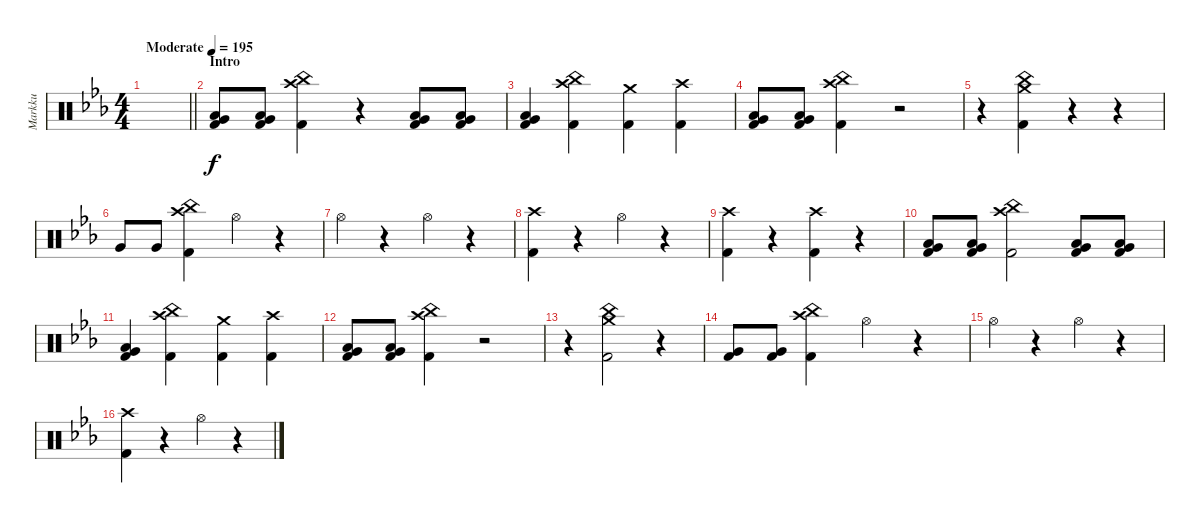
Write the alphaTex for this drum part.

\track ("Markku" "Markku") {instrument percussion}
\staff {score}
\articulation defaults
\ts (4 4)
\tempo (195 "Moderate")
\clef neutral
\barLineRight lightlight
\ks cminor
|
\section ("" "Intro")
("Very Low Tom (hit)" "Kick (hit) 2" "Low Tom (hit)").8 ("Very Low Tom (hit)" "Kick (hit) 2" "Low Tom (hit)").8 ("Crash high (hit)" "China (hit)" "Kick (hit) 2").4 r.4 ("Kick (hit) 2" "Low Tom (hit)" "Very Low Tom (hit)").8 ("Kick (hit) 2" "Low Tom (hit)" "Very Low Tom (hit)").8 |
("Kick (hit) 2" "Low Tom (hit)" "Very Low Tom (hit)").4 ("Kick (hit) 2" "Crash high (hit)" "China (hit)").4 ("Kick (hit) 2" "Crash medium (hit)").4 ("Kick (hit) 2" "Crash high (hit)").4 |
("Kick (hit) 2" "Low Tom (hit)" "Very Low Tom (hit)").8 ("Kick (hit) 2" "Low Tom (hit)" "Very Low Tom (hit)").8 ("Crash high (hit)" "China (hit)" "Kick (hit) 2").4 r.2 |
r.4 ("Kick (hit) 2" "China (hit)" "Crash medium (hit)").4 r.4 r.4 |
"Very Low Tom (hit)".8 "Very Low Tom (hit)".8 ("China (hit)" "Crash high (hit)" "Kick (hit) 2").4 "Hi-Hat (open)".4 r.4 |
"Hi-Hat (open)".4 r.4 "Hi-Hat (open)".4 r.4 |
("Crash high (hit)" "Kick (hit) 2").4 r.4 "Hi-Hat (open)".4 r.4 |
("Crash high (hit)" "Kick (hit) 2").4 r.4 ("Kick (hit) 2" "Crash high (hit)").4 r.4 |
("Very Low Tom (hit)" "Kick (hit) 2" "Low Tom (hit)").8 ("Very Low Tom (hit)" "Kick (hit) 2" "Low Tom (hit)").8 ("Crash high (hit)" "China (hit)" "Kick (hit) 2").2 ("Kick (hit) 2" "Low Tom (hit)" "Very Low Tom (hit)").8 ("Kick (hit) 2" "Low Tom (hit)" "Very Low Tom (hit)").8 |
("Kick (hit) 2" "Low Tom (hit)" "Very Low Tom (hit)").4 ("Kick (hit) 2" "Crash high (hit)" "China (hit)").4 ("Kick (hit) 2" "Crash medium (hit)").4 ("Kick (hit) 2" "Crash high (hit)").4 |
("Kick (hit) 2" "Low Tom (hit)" "Very Low Tom (hit)").8 ("Kick (hit) 2" "Low Tom (hit)" "Very Low Tom (hit)").8 ("Crash high (hit)" "China (hit)" "Kick (hit) 2").4 r.2 |
r.4 ("Kick (hit) 2" "China (hit)" "Crash medium (hit)").2 r.4 |
("Very Low Tom (hit)" "Kick (hit) 2").8 ("Very Low Tom (hit)" "Kick (hit) 2").8 ("Crash high (hit)" "Kick (hit) 2" "China (hit)").4 "Hi-Hat (open)".4 r.4 |
"Hi-Hat (open)".4 r.4 "Hi-Hat (open)".4 r.4 |
("Kick (hit) 2" "Crash high (hit)").4 r.4 "Hi-Hat (open)".4 r.4
